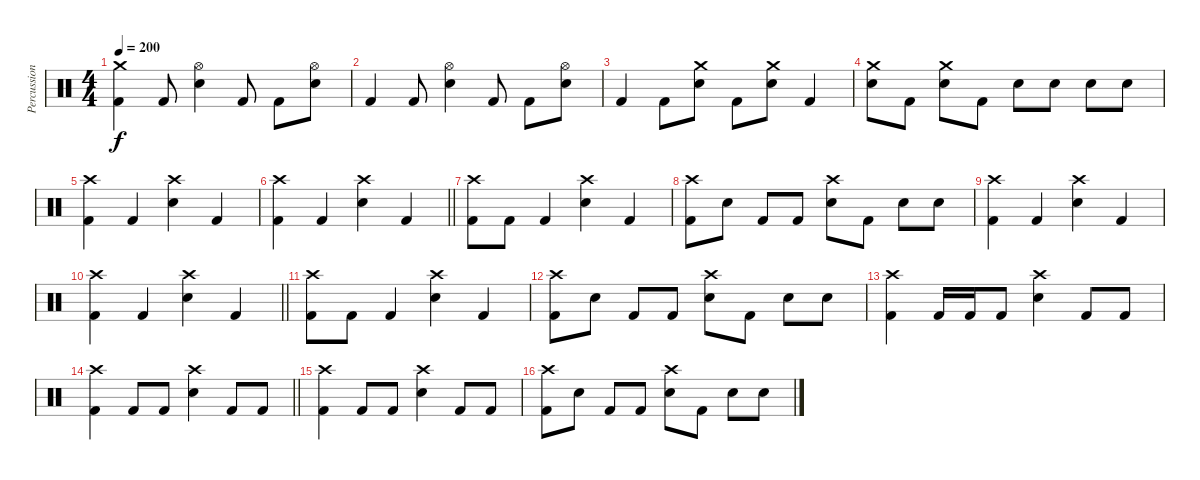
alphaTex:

\track ("Percussion" "Percussion") {instrument percussion}
\staff {score}
\articulation defaults
\ts (4 4)
\tempo 200
\clef neutral
\ks c
("Crash medium (hit)" "Kick (hit) 2").4{dy f} "Kick (hit) 2".8 ("Hi-Hat (open)" "Snare (hit) 2").4 "Kick (hit) 2".8 "Kick (hit) 2".8 ("Hi-Hat (open)" "Snare (hit) 2").8 |
"Kick (hit) 2".4 "Kick (hit) 2".8 ("Hi-Hat (open)" "Snare (hit) 2").4 "Kick (hit) 2".8 "Kick (hit) 2".8 ("Hi-Hat (open)" "Snare (hit) 2").8 |
"Kick (hit) 2".4 "Kick (hit) 2".8 ("Crash medium (hit)" "Snare (hit) 2").8 "Kick (hit) 2".8 ("Crash medium (hit)" "Snare (hit) 2").8 "Kick (hit) 2".4 |
("Crash medium (hit)" "Snare (hit) 2").8 "Kick (hit) 2".8 ("Crash medium (hit)" "Snare (hit) 2").8 "Kick (hit) 2".8 "Snare (hit) 2".8 "Snare (hit) 2".8 "Snare (hit) 2".8 "Snare (hit) 2".8 |
("Crash high (hit)" "Kick (hit) 2").4 "Kick (hit) 2".4 ("Crash high (hit)" "Snare (hit) 2").4 "Kick (hit) 2".4 |
\barLineRight lightlight
("Crash high (hit)" "Kick (hit) 2").4 "Kick (hit) 2".4 ("Crash high (hit)" "Snare (hit) 2").4 "Kick (hit) 2".4 |
("Crash high (hit)" "Kick (hit) 2").8 "Kick (hit) 2".8 "Kick (hit) 2".4 ("Crash high (hit)" "Snare (hit) 2").4 "Kick (hit) 2".4 |
("Crash high (hit)" "Kick (hit) 2").8 "Snare (hit) 2".8 "Kick (hit) 2".8 "Kick (hit) 2".8 ("Crash high (hit)" "Snare (hit) 2").8 "Kick (hit) 2".8 "Snare (hit) 2".8 "Snare (hit) 2".8 |
("Crash high (hit)" "Kick (hit) 2").4 "Kick (hit) 2".4 ("Crash high (hit)" "Snare (hit) 2").4 "Kick (hit) 2".4 |
\barLineRight lightlight
("Crash high (hit)" "Kick (hit) 2").4 "Kick (hit) 2".4 ("Crash high (hit)" "Snare (hit) 2").4 "Kick (hit) 2".4 |
("Crash high (hit)" "Kick (hit) 2").8 "Kick (hit) 2".8 "Kick (hit) 2".4 ("Crash high (hit)" "Snare (hit) 2").4 "Kick (hit) 2".4 |
("Crash high (hit)" "Kick (hit) 2").8 "Snare (hit) 2".8 "Kick (hit) 2".8 "Kick (hit) 2".8 ("Crash high (hit)" "Snare (hit) 2").8 "Kick (hit) 2".8 "Snare (hit) 2".8 "Snare (hit) 2".8 |
("Crash high (hit)" "Kick (hit) 2").4 "Kick (hit) 2".16 "Kick (hit) 2".16 "Kick (hit) 2".8 ("Crash high (hit)" "Snare (hit) 2").4 "Kick (hit) 2".8 "Kick (hit) 2".8 |
\barLineRight lightlight
("Crash high (hit)" "Kick (hit) 2").4 "Kick (hit) 2".8 "Kick (hit) 2".8 ("Crash high (hit)" "Snare (hit) 2").4 "Kick (hit) 2".8 "Kick (hit) 2".8 |
("Crash high (hit)" "Kick (hit) 2").4 "Kick (hit) 2".8 "Kick (hit) 2".8 ("Crash high (hit)" "Snare (hit) 2").4 "Kick (hit) 2".8 "Kick (hit) 2".8 |
("Crash high (hit)" "Kick (hit) 2").8 "Snare (hit) 2".8 "Kick (hit) 2".8 "Kick (hit) 2".8 ("Crash high (hit)" "Snare (hit) 2").8 "Kick (hit) 2".8 "Snare (hit) 2".8 "Snare (hit) 2".8
